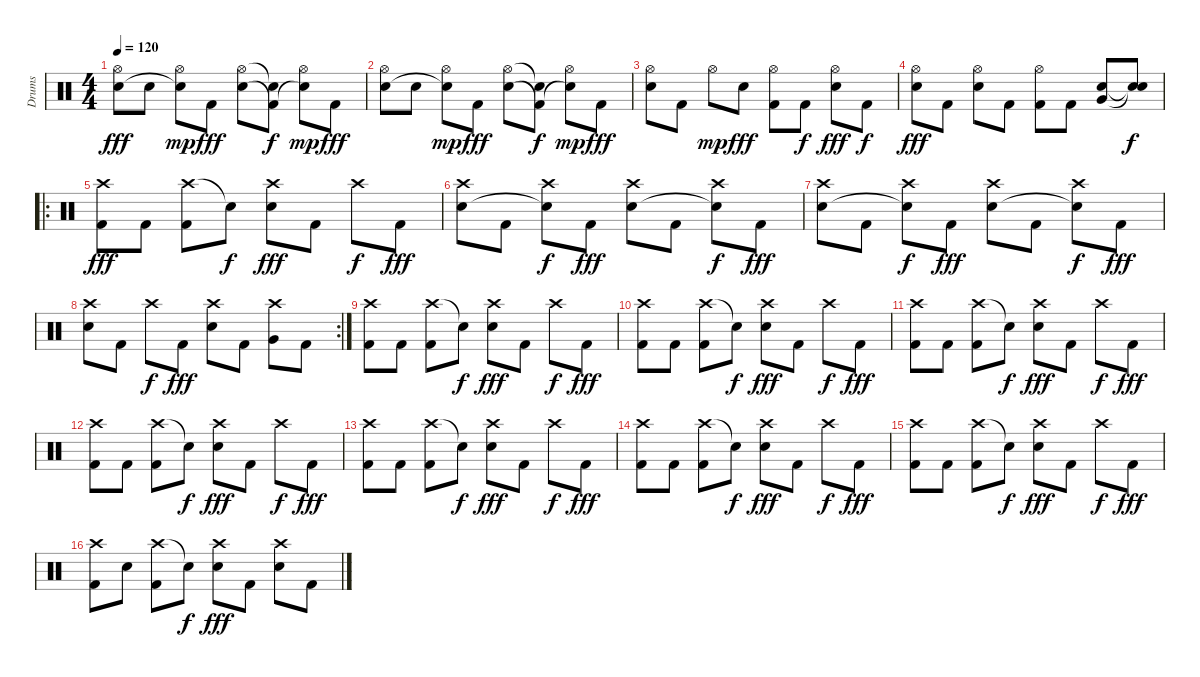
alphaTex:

\track ("Drums" "Drums") {instrument percussion}
\staff {score}
\articulation defaults
\ts (4 4)
\tempo 120
\clef neutral
\ks c
("Hi-Hat (open)" "Electric Snare (hit)").8{dy fff} "Electric Snare (hit)".8 ("Hi-Hat (open)" "Snare (hit)"{t}).8{dy mp} "Kick (hit) 2".8{dy fff} ("Hi-Hat (open)" "Electric Snare (hit)").8 ("Snare (hit)"{t} "Kick (hit) 2"{t}).8{dy f} ("Hi-Hat (open)" "Snare (hit)"{t}).8{dy mp} "Kick (hit) 2".8{dy fff} |
("Hi-Hat (open)" "Electric Snare (hit)").8 "Electric Snare (hit)".8 ("Hi-Hat (open)" "Snare (hit)"{t}).8{dy mp} "Kick (hit) 2".8{dy fff} ("Hi-Hat (open)" "Electric Snare (hit)").8 ("Snare (hit)"{t} "Kick (hit) 2"{t}).8{dy f} ("Hi-Hat (open)" "Snare (hit)"{t}).8{dy mp} "Kick (hit) 2".8{dy fff} |
("Hi-Hat (open)" "Electric Snare (hit)").8 "Kick (hit) 2".8 "Hi-Hat (open)".8{dy mp} "Electric Snare (hit)".8{dy fff} ("Hi-Hat (open)" "Kick (hit) 2").8 "Kick (hit) 2".8{dy f} ("Hi-Hat (open)" "Electric Snare (hit)").8{dy fff} "Kick (hit) 2".8{dy f} |
("Hi-Hat (open)" "Electric Snare (hit)").8{dy fff} "Kick (hit) 2".8 ("Hi-Hat (open)" "Electric Snare (hit)").8 "Kick (hit) 2".8 ("Hi-Hat (open)" "Kick (hit) 2").8 "Kick (hit) 2".8 ("Very Low Tom (hit)" "Electric Snare (hit)").8 ("Snare (hit)"{t} "Snare (hit)"{t}).8{dy f} |
\ro
("Crash high (hit)" "Kick (hit) 2").8{dy fff} "Kick (hit) 2".8 ("Crash high (hit)" "Kick (hit) 2").8 "Electric Snare (hit)"{t}.8{dy f} ("Crash high (hit)" "Electric Snare (hit)").8{dy fff} "Kick (hit) 2".8 "Crash high (hit)".8{dy f} "Kick (hit) 2".8{dy fff} |
("Crash high (hit)" "Electric Snare (hit)").8 "Kick (hit) 2".8 ("Crash high (hit)" "Snare (hit)"{t}).8{dy f} "Kick (hit) 2".8{dy fff} ("Crash high (hit)" "Electric Snare (hit)").8 "Kick (hit) 2".8 ("Crash high (hit)" "Snare (hit)"{t}).8{dy f} "Kick (hit) 2".8{dy fff} |
("Crash high (hit)" "Electric Snare (hit)").8 "Kick (hit) 2".8 ("Crash high (hit)" "Snare (hit)"{t}).8{dy f} "Kick (hit) 2".8{dy fff} ("Crash high (hit)" "Electric Snare (hit)").8 "Kick (hit) 2".8 ("Crash high (hit)" "Snare (hit)"{t}).8{dy f} "Kick (hit) 2".8{dy fff} |
\rc 2
("Crash high (hit)" "Electric Snare (hit)").8 "Kick (hit) 2".8 "Crash high (hit)".8{dy f} "Kick (hit) 2".8{dy fff} ("Crash high (hit)" "Electric Snare (hit)").8 "Kick (hit) 2".8 ("Crash high (hit)" "Very Low Tom (hit)").8 "Kick (hit) 2".8 |
("Crash high (hit)" "Kick (hit) 2").8 "Kick (hit) 2".8 ("Crash high (hit)" "Kick (hit) 2").8 "Electric Snare (hit)"{t}.8{dy f} ("Crash high (hit)" "Electric Snare (hit)").8{dy fff} "Kick (hit) 2".8 "Crash high (hit)".8{dy f} "Kick (hit) 2".8{dy fff} |
("Crash high (hit)" "Kick (hit) 2").8 "Kick (hit) 2".8 ("Crash high (hit)" "Kick (hit) 2").8 "Electric Snare (hit)"{t}.8{dy f} ("Crash high (hit)" "Electric Snare (hit)").8{dy fff} "Kick (hit) 2".8 "Crash high (hit)".8{dy f} "Kick (hit) 2".8{dy fff} |
("Crash high (hit)" "Kick (hit) 2").8 "Kick (hit) 2".8 ("Crash high (hit)" "Kick (hit) 2").8 "Electric Snare (hit)"{t}.8{dy f} ("Crash high (hit)" "Electric Snare (hit)").8{dy fff} "Kick (hit) 2".8 "Crash high (hit)".8{dy f} "Kick (hit) 2".8{dy fff} |
("Crash high (hit)" "Kick (hit) 2").8 "Kick (hit) 2".8 ("Crash high (hit)" "Kick (hit) 2").8 "Electric Snare (hit)"{t}.8{dy f} ("Crash high (hit)" "Electric Snare (hit)").8{dy fff} "Kick (hit) 2".8 "Crash high (hit)".8{dy f} "Kick (hit) 2".8{dy fff} |
("Crash high (hit)" "Kick (hit) 2").8 "Kick (hit) 2".8 ("Crash high (hit)" "Kick (hit) 2").8 "Electric Snare (hit)"{t}.8{dy f} ("Crash high (hit)" "Electric Snare (hit)").8{dy fff} "Kick (hit) 2".8 "Crash high (hit)".8{dy f} "Kick (hit) 2".8{dy fff} |
("Crash high (hit)" "Kick (hit) 2").8 "Kick (hit) 2".8 ("Crash high (hit)" "Kick (hit) 2").8 "Electric Snare (hit)"{t}.8{dy f} ("Crash high (hit)" "Electric Snare (hit)").8{dy fff} "Kick (hit) 2".8 "Crash high (hit)".8{dy f} "Kick (hit) 2".8{dy fff} |
("Crash high (hit)" "Kick (hit) 2").8 "Kick (hit) 2".8 ("Crash high (hit)" "Kick (hit) 2").8 "Electric Snare (hit)"{t}.8{dy f} ("Crash high (hit)" "Electric Snare (hit)").8{dy fff} "Kick (hit) 2".8 "Crash high (hit)".8{dy f} "Kick (hit) 2".8{dy fff} |
("Crash high (hit)" "Kick (hit) 2").8 "Electric Snare (hit)".8 ("Crash high (hit)" "Kick (hit) 2").8 "Electric Snare (hit)"{t}.8{dy f} ("Crash high (hit)" "Electric Snare (hit)").8{dy fff} "Kick (hit) 2".8 ("Crash high (hit)" "Electric Snare (hit)").8 "Kick (hit) 2".8
